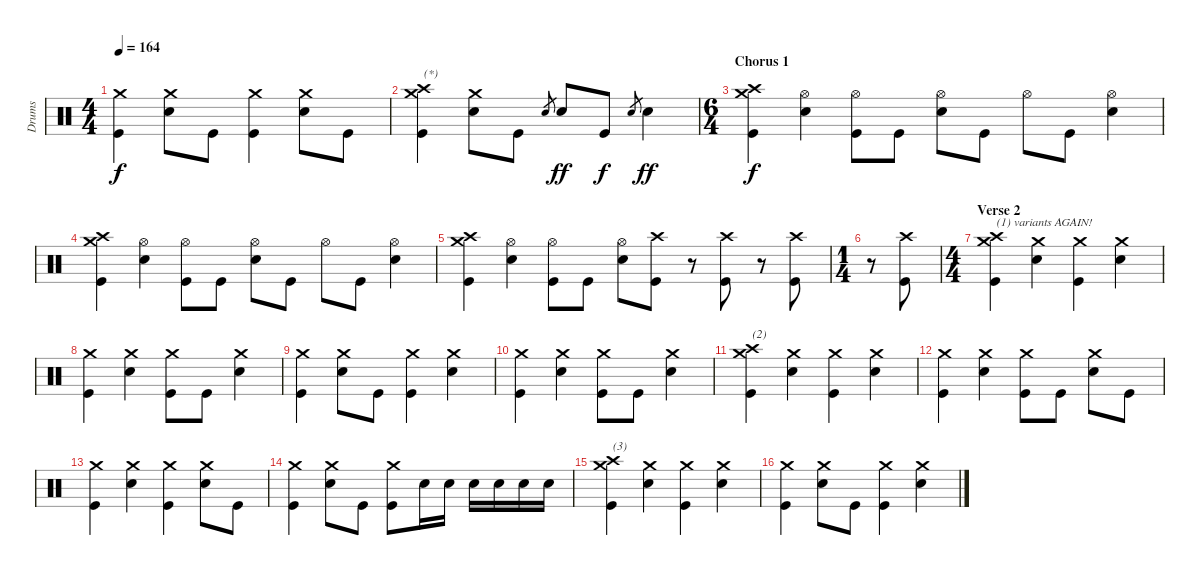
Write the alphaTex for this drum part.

\track ("Drums" "Drums") {instrument percussion}
\staff {score}
\articulation defaults
\ts (4 4)
\tempo 164
\clef neutral
\ks c
("Crash medium (hit)" "Kick (hit)").4{dy f} ("Crash medium (hit)" "Electric Snare (hit)").8 "Kick (hit)".8 ("Crash medium (hit)" "Kick (hit)").4 ("Crash medium (hit)" "Electric Snare (hit)").8 "Kick (hit)".8 |
("Crash medium (hit)" "Crash high (hit)" "Kick (hit)").4{txt "(*)"} ("Crash medium (hit)" "Electric Snare (hit)").8 "Kick (hit)".8 "Electric Snare (hit)".8{gr} "Electric Snare (hit)".8{dy ff} "Kick (hit)".8{dy f} "Electric Snare (hit)".8{gr} "Electric Snare (hit)".4{dy ff} |
\ts (6 4)
\section ("" "Chorus 1")
("Crash medium (hit)" "Crash high (hit)" "Kick (hit)").4{dy f} ("Hi-Hat (open)" "Electric Snare (hit)").4 ("Hi-Hat (open)" "Kick (hit)").8 "Kick (hit)".8 ("Hi-Hat (open)" "Electric Snare (hit)").8 "Kick (hit)".8 "Hi-Hat (open)".8 "Kick (hit)".8 ("Hi-Hat (open)" "Electric Snare (hit)").4 |
("Crash medium (hit)" "Crash high (hit)" "Kick (hit)").4 ("Hi-Hat (open)" "Electric Snare (hit)").4 ("Hi-Hat (open)" "Kick (hit)").8 "Kick (hit)".8 ("Hi-Hat (open)" "Electric Snare (hit)").8 "Kick (hit)".8 "Hi-Hat (open)".8 "Kick (hit)".8 ("Hi-Hat (open)" "Electric Snare (hit)").4 |
("Crash medium (hit)" "Crash high (hit)" "Kick (hit)").4 ("Hi-Hat (open)" "Electric Snare (hit)").4 ("Hi-Hat (open)" "Kick (hit)").8 "Kick (hit)".8 ("Hi-Hat (open)" "Electric Snare (hit)").8 ("Crash high (hit)" "Kick (hit)").8 r.8 ("Crash high (hit)" "Kick (hit)").8 r.8 ("Crash high (hit)" "Kick (hit)").8 |
\ts (1 4)
r.8 ("Crash high (hit)" "Kick (hit)").8 |
\ts (4 4)
\section ("" "Verse 2")
("Crash medium (hit)" "Crash high (hit)" "Kick (hit)").4{txt "(1) variants AGAIN!"} ("Crash medium (hit)" "Electric Snare (hit)").4 ("Crash medium (hit)" "Kick (hit)").4 ("Crash medium (hit)" "Electric Snare (hit)").4 |
("Crash medium (hit)" "Kick (hit)").4 ("Crash medium (hit)" "Electric Snare (hit)").4 ("Crash medium (hit)" "Kick (hit)").8 "Kick (hit)".8 ("Crash medium (hit)" "Electric Snare (hit)").4 |
("Crash medium (hit)" "Kick (hit)").4 ("Crash medium (hit)" "Electric Snare (hit)").8 "Kick (hit)".8 ("Crash medium (hit)" "Kick (hit)").4 ("Crash medium (hit)" "Electric Snare (hit)").4 |
("Crash medium (hit)" "Kick (hit)").4 ("Crash medium (hit)" "Electric Snare (hit)").4 ("Crash medium (hit)" "Kick (hit)").8 "Kick (hit)".8 ("Crash medium (hit)" "Electric Snare (hit)").4 |
("Crash medium (hit)" "Crash high (hit)" "Kick (hit)").4{txt "(2)"} ("Crash medium (hit)" "Electric Snare (hit)").4 ("Crash medium (hit)" "Kick (hit)").4 ("Crash medium (hit)" "Electric Snare (hit)").4 |
("Crash medium (hit)" "Kick (hit)").4 ("Crash medium (hit)" "Electric Snare (hit)").4 ("Crash medium (hit)" "Kick (hit)").8 "Kick (hit)".8 ("Crash medium (hit)" "Electric Snare (hit)").8 "Kick (hit)".8 |
("Crash medium (hit)" "Kick (hit)").4 ("Crash medium (hit)" "Electric Snare (hit)").4 ("Crash medium (hit)" "Kick (hit)").4 ("Crash medium (hit)" "Electric Snare (hit)").8 "Kick (hit)".8 |
("Crash medium (hit)" "Kick (hit)").4 ("Crash medium (hit)" "Electric Snare (hit)").8 "Kick (hit)".8 ("Crash medium (hit)" "Kick (hit)").8 "Electric Snare (hit)".16 "Electric Snare (hit)".16 "Electric Snare (hit)".16 "Electric Snare (hit)".16 "Electric Snare (hit)".16 "Electric Snare (hit)".16 |
("Crash medium (hit)" "Crash high (hit)" "Kick (hit)").4{txt "(3)"} ("Crash medium (hit)" "Electric Snare (hit)").4 ("Crash medium (hit)" "Kick (hit)").4 ("Crash medium (hit)" "Electric Snare (hit)").4 |
("Crash medium (hit)" "Kick (hit)").4 ("Crash medium (hit)" "Electric Snare (hit)").8 "Kick (hit)".8 ("Crash medium (hit)" "Kick (hit)").4 ("Crash medium (hit)" "Electric Snare (hit)").4
